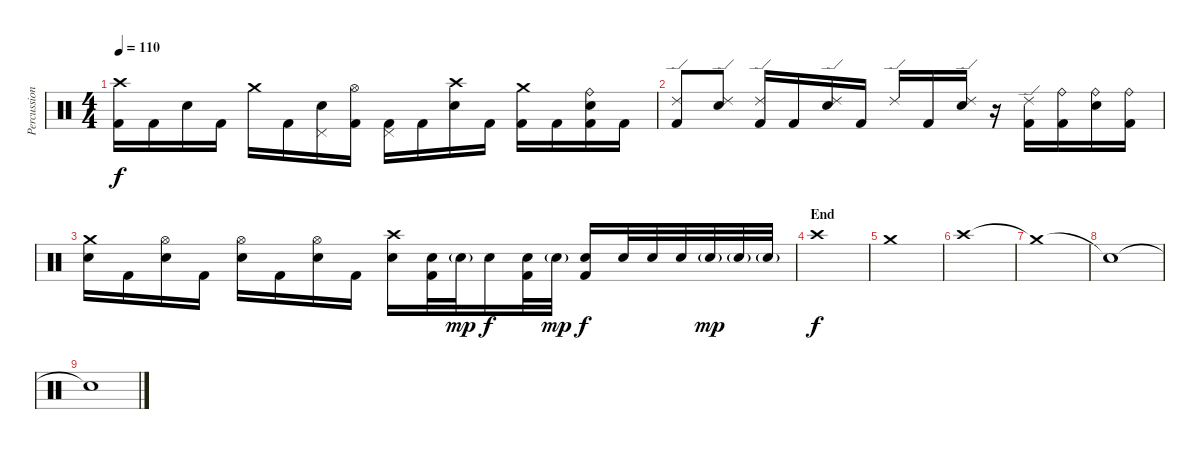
\track ("Percussion" "Percussion") {instrument percussion}
\staff {score}
\articulation defaults
\ts (4 4)
\tempo 110
\clef neutral
\ks c
("Crash high (hit)" "Kick (hit) 2").16{dy f} "Kick (hit) 2".16 "Snare (hit) 2".16 "Kick (hit) 2".16 "Crash medium (hit)".16 "Kick (hit) 2".16 ("Pedal Hi-Hat (hit)" "Snare (hit) 2").16 ("Hi-Hat (open)" "Kick (hit) 2").16 ("Pedal Hi-Hat (hit)" "Kick (hit) 2").16 "Kick (hit) 2".16 ("Crash high (hit)" "Snare (hit) 2").16 "Kick (hit) 2".16 ("Crash medium (hit)" "Kick (hit) 2").16 "Kick (hit) 2".16 ("Ride (bell)" "Snare (hit) 2" "Kick (hit) 2").16 "Kick (hit) 2".16 |
("Ride (edge) 2" "Kick (hit) 2").8 ("Ride (edge) 2" "Snare (hit) 2").8 ("Ride (edge) 2" "Kick (hit) 2").16 "Kick (hit) 2".16 ("Ride (edge) 2" "Snare (hit) 2").16 "Kick (hit) 2".16 "Ride (edge) 2".16 "Kick (hit) 2".16 ("Ride (edge) 2" "Snare (hit) 2").16 r.16 ("Ride (edge) 2" "Kick (hit) 2").16 ("Ride (bell)" "Kick (hit) 2").16 ("Ride (bell)" "Snare (hit) 2").16 ("Ride (bell)" "Kick (hit) 2").16 |
("Crash medium (hit)" "Snare (hit) 2").16 "Kick (hit) 2".16 ("Hi-Hat (open)" "Snare (hit) 2").16 "Kick (hit) 2".16 ("Hi-Hat (open)" "Snare (hit) 2").16 "Kick (hit) 2".16 ("Hi-Hat (open)" "Snare (hit) 2").16 "Kick (hit) 2".16 ("Crash high (hit)" "Snare (hit) 2").16 ("Snare (hit) 2" "Kick (hit) 2").32 "Snare (hit) 2"{g}.32{dy mp} "Snare (hit) 2".16{dy f} ("Snare (hit) 2" "Kick (hit) 2").32 "Snare (hit) 2"{g}.32{dy mp} ("Snare (hit) 2" "Kick (hit) 2").16{dy f} "Snare (hit) 2".32 "Snare (hit) 2".32 "Snare (hit) 2".32 "Snare (hit) 2"{g}.32{dy mp} "Snare (hit) 2"{g}.32 "Snare (hit) 2"{g}.32 |
\section ("" "End")
"Crash high (hit)".1{dy f} |
"Crash medium (hit)".1 |
"Crash high (hit)".1 |
"Crash medium (hit)"{t}.1 |
"Snare (hit)"{t}.1 |
"Snare (hit)"{t}.1
